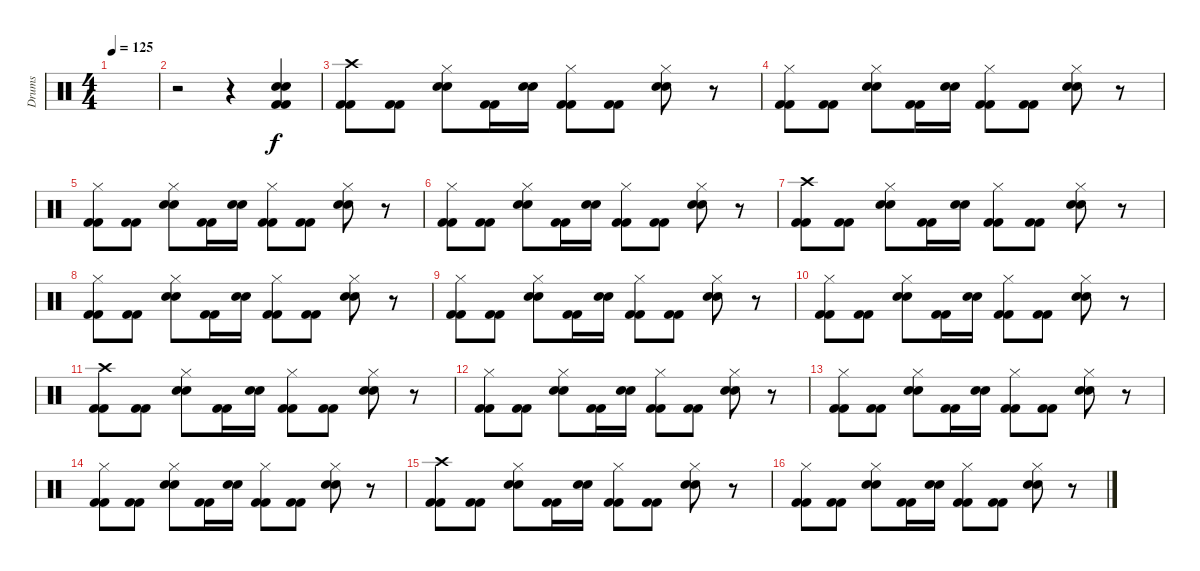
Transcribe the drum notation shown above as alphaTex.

\track ("Drums" "Drums") {instrument percussion}
\staff {score}
\articulation defaults
\ts (4 4)
\tempo 125
\clef neutral
\ks c
|
r.2 r.4 ("Hand Clap (hit)" "Snare (hit) 2" "Kick (hit) 2" "Kick (hit) 2").4 |
("Crash high (hit)" "Kick (hit) 2" "Kick (hit) 2").8 ("Kick (hit) 2" "Kick (hit) 2").8 ("Hi-Hat (closed)" "Hand Clap (hit)" "Snare (hit) 2").8 ("Kick (hit) 2" "Kick (hit) 2").16 ("Hand Clap (hit)" "Snare (hit) 2").16 ("Hi-Hat (closed)" "Kick (hit) 2" "Kick (hit) 2").8 ("Kick (hit) 2" "Kick (hit) 2").8 ("Hi-Hat (closed)" "Hand Clap (hit)" "Snare (hit) 2").8 r.8 |
("Hi-Hat (closed)" "Kick (hit) 2" "Kick (hit) 2").8 ("Kick (hit) 2" "Kick (hit) 2").8 ("Hi-Hat (closed)" "Hand Clap (hit)" "Snare (hit) 2").8 ("Kick (hit) 2" "Kick (hit) 2").16 ("Hand Clap (hit)" "Snare (hit) 2").16 ("Hi-Hat (closed)" "Kick (hit) 2" "Kick (hit) 2").8 ("Kick (hit) 2" "Kick (hit) 2").8 ("Hi-Hat (closed)" "Hand Clap (hit)" "Snare (hit) 2").8 r.8 |
("Hi-Hat (closed)" "Kick (hit) 2" "Kick (hit) 2").8 ("Kick (hit) 2" "Kick (hit) 2").8 ("Hi-Hat (closed)" "Hand Clap (hit)" "Snare (hit) 2").8 ("Kick (hit) 2" "Kick (hit) 2").16 ("Hand Clap (hit)" "Snare (hit) 2").16 ("Hi-Hat (closed)" "Kick (hit) 2" "Kick (hit) 2").8 ("Kick (hit) 2" "Kick (hit) 2").8 ("Hi-Hat (closed)" "Hand Clap (hit)" "Snare (hit) 2").8 r.8 |
("Hi-Hat (closed)" "Kick (hit) 2" "Kick (hit) 2").8 ("Kick (hit) 2" "Kick (hit) 2").8 ("Hi-Hat (closed)" "Hand Clap (hit)" "Snare (hit) 2").8 ("Kick (hit) 2" "Kick (hit) 2").16 ("Hand Clap (hit)" "Snare (hit) 2").16 ("Hi-Hat (closed)" "Kick (hit) 2" "Kick (hit) 2").8 ("Kick (hit) 2" "Kick (hit) 2").8 ("Hi-Hat (closed)" "Hand Clap (hit)" "Snare (hit) 2").8 r.8 |
("Crash high (hit)" "Kick (hit) 2" "Kick (hit) 2").8 ("Kick (hit) 2" "Kick (hit) 2").8 ("Hi-Hat (closed)" "Hand Clap (hit)" "Snare (hit) 2").8 ("Kick (hit) 2" "Kick (hit) 2").16 ("Hand Clap (hit)" "Snare (hit) 2").16 ("Hi-Hat (closed)" "Kick (hit) 2" "Kick (hit) 2").8 ("Kick (hit) 2" "Kick (hit) 2").8 ("Hi-Hat (closed)" "Hand Clap (hit)" "Snare (hit) 2").8 r.8 |
("Hi-Hat (closed)" "Kick (hit) 2" "Kick (hit) 2").8 ("Kick (hit) 2" "Kick (hit) 2").8 ("Hi-Hat (closed)" "Hand Clap (hit)" "Snare (hit) 2").8 ("Kick (hit) 2" "Kick (hit) 2").16 ("Hand Clap (hit)" "Snare (hit) 2").16 ("Hi-Hat (closed)" "Kick (hit) 2" "Kick (hit) 2").8 ("Kick (hit) 2" "Kick (hit) 2").8 ("Hi-Hat (closed)" "Hand Clap (hit)" "Snare (hit) 2").8 r.8 |
("Hi-Hat (closed)" "Kick (hit) 2" "Kick (hit) 2").8 ("Kick (hit) 2" "Kick (hit) 2").8 ("Hi-Hat (closed)" "Hand Clap (hit)" "Snare (hit) 2").8 ("Kick (hit) 2" "Kick (hit) 2").16 ("Hand Clap (hit)" "Snare (hit) 2").16 ("Hi-Hat (closed)" "Kick (hit) 2" "Kick (hit) 2").8 ("Kick (hit) 2" "Kick (hit) 2").8 ("Hi-Hat (closed)" "Hand Clap (hit)" "Snare (hit) 2").8 r.8 |
("Hi-Hat (closed)" "Kick (hit) 2" "Kick (hit) 2").8 ("Kick (hit) 2" "Kick (hit) 2").8 ("Hi-Hat (closed)" "Hand Clap (hit)" "Snare (hit) 2").8 ("Kick (hit) 2" "Kick (hit) 2").16 ("Hand Clap (hit)" "Snare (hit) 2").16 ("Hi-Hat (closed)" "Kick (hit) 2" "Kick (hit) 2").8 ("Kick (hit) 2" "Kick (hit) 2").8 ("Hi-Hat (closed)" "Hand Clap (hit)" "Snare (hit) 2").8 r.8 |
("Crash high (hit)" "Kick (hit) 2" "Kick (hit) 2").8 ("Kick (hit) 2" "Kick (hit) 2").8 ("Hi-Hat (closed)" "Hand Clap (hit)" "Snare (hit) 2").8 ("Kick (hit) 2" "Kick (hit) 2").16 ("Hand Clap (hit)" "Snare (hit) 2").16 ("Hi-Hat (closed)" "Kick (hit) 2" "Kick (hit) 2").8 ("Kick (hit) 2" "Kick (hit) 2").8 ("Hi-Hat (closed)" "Hand Clap (hit)" "Snare (hit) 2").8 r.8 |
("Hi-Hat (closed)" "Kick (hit) 2" "Kick (hit) 2").8 ("Kick (hit) 2" "Kick (hit) 2").8 ("Hi-Hat (closed)" "Hand Clap (hit)" "Snare (hit) 2").8 ("Kick (hit) 2" "Kick (hit) 2").16 ("Hand Clap (hit)" "Snare (hit) 2").16 ("Hi-Hat (closed)" "Kick (hit) 2" "Kick (hit) 2").8 ("Kick (hit) 2" "Kick (hit) 2").8 ("Hi-Hat (closed)" "Hand Clap (hit)" "Snare (hit) 2").8 r.8 |
("Hi-Hat (closed)" "Kick (hit) 2" "Kick (hit) 2").8 ("Kick (hit) 2" "Kick (hit) 2").8 ("Hi-Hat (closed)" "Hand Clap (hit)" "Snare (hit) 2").8 ("Kick (hit) 2" "Kick (hit) 2").16 ("Hand Clap (hit)" "Snare (hit) 2").16 ("Hi-Hat (closed)" "Kick (hit) 2" "Kick (hit) 2").8 ("Kick (hit) 2" "Kick (hit) 2").8 ("Hi-Hat (closed)" "Hand Clap (hit)" "Snare (hit) 2").8 r.8 |
("Hi-Hat (closed)" "Kick (hit) 2" "Kick (hit) 2").8 ("Kick (hit) 2" "Kick (hit) 2").8 ("Hi-Hat (closed)" "Hand Clap (hit)" "Snare (hit) 2").8 ("Kick (hit) 2" "Kick (hit) 2").16 ("Hand Clap (hit)" "Snare (hit) 2").16 ("Hi-Hat (closed)" "Kick (hit) 2" "Kick (hit) 2").8 ("Kick (hit) 2" "Kick (hit) 2").8 ("Hi-Hat (closed)" "Hand Clap (hit)" "Snare (hit) 2").8 r.8 |
("Crash high (hit)" "Kick (hit) 2" "Kick (hit) 2").8 ("Kick (hit) 2" "Kick (hit) 2").8 ("Hi-Hat (closed)" "Hand Clap (hit)" "Snare (hit) 2").8 ("Kick (hit) 2" "Kick (hit) 2").16 ("Hand Clap (hit)" "Snare (hit) 2").16 ("Hi-Hat (closed)" "Kick (hit) 2" "Kick (hit) 2").8 ("Kick (hit) 2" "Kick (hit) 2").8 ("Hi-Hat (closed)" "Hand Clap (hit)" "Snare (hit) 2").8 r.8 |
("Hi-Hat (closed)" "Kick (hit) 2" "Kick (hit) 2").8 ("Kick (hit) 2" "Kick (hit) 2").8 ("Hi-Hat (closed)" "Hand Clap (hit)" "Snare (hit) 2").8 ("Kick (hit) 2" "Kick (hit) 2").16 ("Hand Clap (hit)" "Snare (hit) 2").16 ("Hi-Hat (closed)" "Kick (hit) 2" "Kick (hit) 2").8 ("Kick (hit) 2" "Kick (hit) 2").8 ("Hi-Hat (closed)" "Hand Clap (hit)" "Snare (hit) 2").8 r.8
